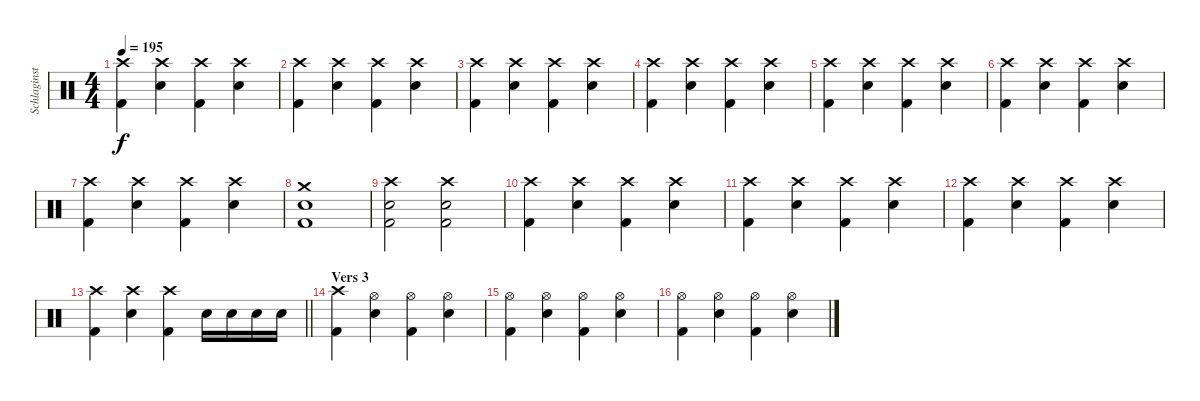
\track ("Schlaginstrumente - Auswahl" "Schlaginst") {instrument percussion}
\staff {score}
\articulation defaults
\ts (4 4)
\tempo 195
\clef neutral
\ks c
("Crash high (hit)" "Kick (hit) 2").4{dy f} ("Crash high (hit)" "Snare (hit) 2").4 ("Crash high (hit)" "Kick (hit) 2").4 ("Crash high (hit)" "Snare (hit) 2").4 |
("Crash high (hit)" "Kick (hit) 2").4 ("Crash high (hit)" "Snare (hit) 2").4 ("Crash high (hit)" "Kick (hit) 2").4 ("Crash high (hit)" "Snare (hit) 2").4 |
("Crash high (hit)" "Kick (hit) 2").4 ("Crash high (hit)" "Snare (hit) 2").4 ("Crash high (hit)" "Kick (hit) 2").4 ("Crash high (hit)" "Snare (hit) 2").4 |
("Crash high (hit)" "Kick (hit) 2").4 ("Crash high (hit)" "Snare (hit) 2").4 ("Crash high (hit)" "Kick (hit) 2").4 ("Crash high (hit)" "Snare (hit) 2").4 |
("Crash high (hit)" "Kick (hit) 2").4 ("Crash high (hit)" "Snare (hit) 2").4 ("Crash high (hit)" "Kick (hit) 2").4 ("Crash high (hit)" "Snare (hit) 2").4 |
("Crash high (hit)" "Kick (hit) 2").4 ("Crash high (hit)" "Snare (hit) 2").4 ("Crash high (hit)" "Kick (hit) 2").4 ("Crash high (hit)" "Snare (hit) 2").4 |
("Crash high (hit)" "Kick (hit) 2").4 ("Crash high (hit)" "Snare (hit) 2").4 ("Crash high (hit)" "Kick (hit) 2").4 ("Crash high (hit)" "Snare (hit) 2").4 |
("Crash medium (hit)" "Kick (hit) 2" "Snare (hit) 2").1 |
("Crash high (hit)" "Kick (hit) 2" "Snare (hit) 2").2 ("Crash high (hit)" "Kick (hit) 2" "Snare (hit) 2").2 |
("Crash high (hit)" "Kick (hit) 2").4 ("Crash high (hit)" "Snare (hit) 2").4 ("Crash high (hit)" "Kick (hit) 2").4 ("Crash high (hit)" "Snare (hit) 2").4 |
("Crash high (hit)" "Kick (hit) 2").4 ("Crash high (hit)" "Snare (hit) 2").4 ("Crash high (hit)" "Kick (hit) 2").4 ("Crash high (hit)" "Snare (hit) 2").4 |
("Crash high (hit)" "Kick (hit) 2").4 ("Crash high (hit)" "Snare (hit) 2").4 ("Crash high (hit)" "Kick (hit) 2").4 ("Crash high (hit)" "Snare (hit) 2").4 |
\barLineRight lightlight
("Crash high (hit)" "Kick (hit) 2").4 ("Crash high (hit)" "Snare (hit) 2").4 ("Crash high (hit)" "Kick (hit) 2").4 "Snare (hit) 2".16 "Snare (hit) 2".16 "Snare (hit) 2".16 "Snare (hit) 2".16 |
\section ("" "Vers 3")
("Kick (hit) 2" "Crash high (hit)").4 ("Hi-Hat (open)" "Snare (hit) 2").4 ("Hi-Hat (open)" "Kick (hit) 2").4 ("Hi-Hat (open)" "Snare (hit) 2").4 |
("Hi-Hat (open)" "Kick (hit) 2").4 ("Hi-Hat (open)" "Snare (hit) 2").4 ("Hi-Hat (open)" "Kick (hit) 2").4 ("Hi-Hat (open)" "Snare (hit) 2").4 |
("Hi-Hat (open)" "Kick (hit) 2").4 ("Hi-Hat (open)" "Snare (hit) 2").4 ("Hi-Hat (open)" "Kick (hit) 2").4 ("Hi-Hat (open)" "Snare (hit) 2").4
